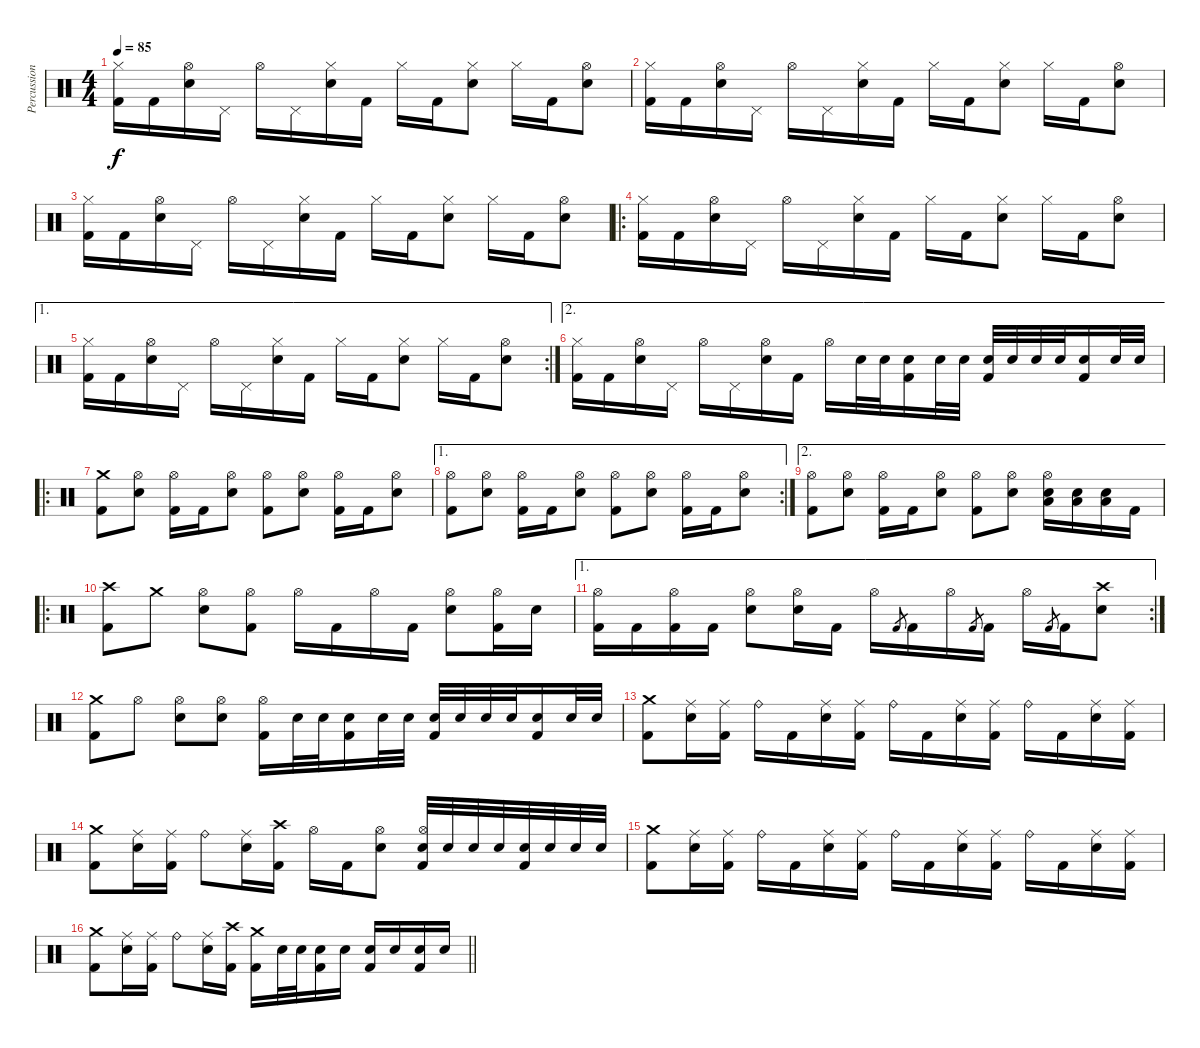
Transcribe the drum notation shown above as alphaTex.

\track ("Percussion" "Percussion") {instrument percussion}
\staff {score}
\articulation defaults
\ts (4 4)
\tempo 85
\clef neutral
\ks c
("Hi-Hat (closed)" "Kick (hit) 2").16{dy f} "Kick (hit) 2".16 ("Hi-Hat (open)" "Electric Snare (hit)").16 "Pedal Hi-Hat (hit)".16 "Hi-Hat (open)".16 "Pedal Hi-Hat (hit)".16 ("Hi-Hat (closed)" "Electric Snare (hit)").16 "Kick (hit) 2".16 "Hi-Hat (closed)".16 "Kick (hit) 2".16 ("Hi-Hat (closed)" "Electric Snare (hit)").8 "Hi-Hat (closed)".16 "Kick (hit) 2".16 ("Hi-Hat (open)" "Electric Snare (hit)").8 |
("Hi-Hat (closed)" "Kick (hit) 2").16 "Kick (hit) 2".16 ("Hi-Hat (open)" "Electric Snare (hit)").16 "Pedal Hi-Hat (hit)".16 "Hi-Hat (open)".16 "Pedal Hi-Hat (hit)".16 ("Hi-Hat (closed)" "Electric Snare (hit)").16 "Kick (hit) 2".16 "Hi-Hat (closed)".16 "Kick (hit) 2".16 ("Hi-Hat (closed)" "Electric Snare (hit)").8 "Hi-Hat (closed)".16 "Kick (hit) 2".16 ("Hi-Hat (open)" "Electric Snare (hit)").8 |
("Hi-Hat (closed)" "Kick (hit) 2").16 "Kick (hit) 2".16 ("Hi-Hat (open)" "Electric Snare (hit)").16 "Pedal Hi-Hat (hit)".16 "Hi-Hat (open)".16 "Pedal Hi-Hat (hit)".16 ("Hi-Hat (closed)" "Electric Snare (hit)").16 "Kick (hit) 2".16 "Hi-Hat (closed)".16 "Kick (hit) 2".16 ("Hi-Hat (closed)" "Electric Snare (hit)").8 "Hi-Hat (closed)".16 "Kick (hit) 2".16 ("Hi-Hat (open)" "Electric Snare (hit)").8 |
\ro
("Hi-Hat (closed)" "Kick (hit) 2").16 "Kick (hit) 2".16 ("Hi-Hat (open)" "Electric Snare (hit)").16 "Pedal Hi-Hat (hit)".16 "Hi-Hat (open)".16 "Pedal Hi-Hat (hit)".16 ("Hi-Hat (closed)" "Electric Snare (hit)").16 "Kick (hit) 2".16 "Hi-Hat (closed)".16 "Kick (hit) 2".16 ("Hi-Hat (closed)" "Electric Snare (hit)").8 "Hi-Hat (closed)".16 "Kick (hit) 2".16 ("Hi-Hat (open)" "Electric Snare (hit)").8 |
\ae 1
\rc 2
("Hi-Hat (closed)" "Kick (hit) 2").16 "Kick (hit) 2".16 ("Hi-Hat (open)" "Electric Snare (hit)").16 "Pedal Hi-Hat (hit)".16 "Hi-Hat (open)".16 "Pedal Hi-Hat (hit)".16 ("Hi-Hat (closed)" "Electric Snare (hit)").16 "Kick (hit) 2".16 "Hi-Hat (closed)".16 "Kick (hit) 2".16 ("Hi-Hat (closed)" "Electric Snare (hit)").8 "Hi-Hat (closed)".16 "Kick (hit) 2".16 ("Hi-Hat (open)" "Electric Snare (hit)").8 |
\ae 2
("Hi-Hat (closed)" "Kick (hit) 2").16 "Kick (hit) 2".16 ("Hi-Hat (open)" "Electric Snare (hit)").16 "Pedal Hi-Hat (hit)".16 "Hi-Hat (open)".16 "Pedal Hi-Hat (hit)".16 ("Hi-Hat (open)" "Electric Snare (hit)").16 "Kick (hit) 2".16 "Hi-Hat (open)".16 "Electric Snare (hit)".32 "Electric Snare (hit)".32 ("Electric Snare (hit)" "Kick (hit) 2").16 "Electric Snare (hit)".32 "Electric Snare (hit)".32 ("Electric Snare (hit)" "Kick (hit) 2").32 "Electric Snare (hit)".32 "Electric Snare (hit)".32 "Electric Snare (hit)".32 ("Electric Snare (hit)" "Kick (hit) 2").16 "Electric Snare (hit)".32 "Electric Snare (hit)".32 |
\ro
("Crash medium (hit)" "Kick (hit) 2").8 ("Hi-Hat (open)" "Electric Snare (hit)").8 ("Hi-Hat (open)" "Kick (hit) 2").16 "Kick (hit) 2".16 ("Hi-Hat (open)" "Electric Snare (hit)").8 ("Hi-Hat (open)" "Kick (hit) 2").8 ("Hi-Hat (open)" "Electric Snare (hit)").8 ("Hi-Hat (open)" "Kick (hit) 2").16 "Kick (hit) 2".16 ("Hi-Hat (open)" "Electric Snare (hit)").8 |
\ae 1
\rc 2
("Hi-Hat (open)" "Kick (hit) 2").8 ("Hi-Hat (open)" "Electric Snare (hit)").8 ("Hi-Hat (open)" "Kick (hit) 2").16 "Kick (hit) 2".16 ("Hi-Hat (open)" "Electric Snare (hit)").8 ("Hi-Hat (open)" "Kick (hit) 2").8 ("Hi-Hat (open)" "Electric Snare (hit)").8 ("Hi-Hat (open)" "Kick (hit) 2").16 "Kick (hit) 2".16 ("Hi-Hat (open)" "Electric Snare (hit)").8 |
\ae 2
("Hi-Hat (open)" "Kick (hit) 2").8 ("Hi-Hat (open)" "Electric Snare (hit)").8 ("Hi-Hat (open)" "Kick (hit) 2").16 "Kick (hit) 2".16 ("Hi-Hat (open)" "Electric Snare (hit)").8 ("Hi-Hat (open)" "Kick (hit) 2").8 ("Hi-Hat (open)" "Electric Snare (hit)").8 ("Hi-Hat (open)" "Electric Snare (hit)" "Low Tom (hit)").16 ("Electric Snare (hit)" "Low Tom (hit)").16 ("Electric Snare (hit)" "Low Tom (hit)").16 "Kick (hit) 2".16 |
\ro
("Crash high (hit)" "Kick (hit) 2").8 "Crash medium (hit)".8 ("Hi-Hat (open)" "Electric Snare (hit)").8 ("Hi-Hat (open)" "Kick (hit) 2").8 "Hi-Hat (open)".16 "Kick (hit) 2".16 "Hi-Hat (open)".16 "Kick (hit) 2".16 ("Hi-Hat (open)" "Electric Snare (hit)").8 ("Hi-Hat (open)" "Kick (hit) 2").16 "Electric Snare (hit)".16 |
\ae 1
\rc 2
("Hi-Hat (open)" "Kick (hit) 2").16 "Kick (hit) 2".16 ("Hi-Hat (open)" "Kick (hit) 2").16 "Kick (hit) 2".16 ("Hi-Hat (open)" "Electric Snare (hit)").8 ("Hi-Hat (open)" "Electric Snare (hit)").16 "Kick (hit) 2".16 "Hi-Hat (open)".16 "Kick (hit) 2".8{gr} "Kick (hit) 2".16 "Hi-Hat (open)".16 "Kick (hit) 2".8{gr} "Kick (hit) 2".16 "Hi-Hat (open)".16 "Kick (hit) 2".8{gr} "Kick (hit) 2".16 ("Crash high (hit)" "Electric Snare (hit)").8 |
("Crash medium (hit)" "Kick (hit) 2").8 "Hi-Hat (open)".8 ("Hi-Hat (open)" "Electric Snare (hit)").8 ("Hi-Hat (open)" "Electric Snare (hit)").8 ("Hi-Hat (open)" "Kick (hit) 2").16 "Electric Snare (hit)".32 "Electric Snare (hit)".32 ("Electric Snare (hit)" "Kick (hit) 2").16 "Electric Snare (hit)".32 "Electric Snare (hit)".32 ("Electric Snare (hit)" "Kick (hit) 2").32 "Electric Snare (hit)".32 "Electric Snare (hit)".32 "Electric Snare (hit)".32 ("Electric Snare (hit)" "Kick (hit) 2").16 "Electric Snare (hit)".32 "Electric Snare (hit)".32 |
("Crash medium (hit)" "Kick (hit) 2").8 ("Ride (middle)" "Electric Snare (hit)").16 ("Ride (middle)" "Kick (hit) 2").16 "Ride (bell)".16 "Kick (hit) 2".16 ("Ride (middle)" "Electric Snare (hit)").16 ("Ride (middle)" "Kick (hit) 2").16 "Ride (bell)".16 "Kick (hit) 2".16 ("Ride (middle)" "Electric Snare (hit)").16 ("Ride (middle)" "Kick (hit) 2").16 "Ride (bell)".16 "Kick (hit) 2".16 ("Ride (middle)" "Electric Snare (hit)").16 ("Ride (middle)" "Kick (hit) 2").16 |
("Crash medium (hit)" "Kick (hit) 2").8 ("Ride (middle)" "Electric Snare (hit)").16 ("Ride (middle)" "Kick (hit) 2").16 "Ride (bell)".8 ("Ride (middle)" "Electric Snare (hit)").16 ("Crash high (hit)" "Kick (hit) 2").16 "Hi-Hat (open)".16 "Kick (hit) 2".16 ("Hi-Hat (open)" "Electric Snare (hit)").8 ("Hi-Hat (open)" "Electric Snare (hit)" "Kick (hit) 2").32 "Electric Snare (hit)".32 "Electric Snare (hit)".32 "Electric Snare (hit)".32 ("Electric Snare (hit)" "Kick (hit) 2").32 "Electric Snare (hit)".32 "Electric Snare (hit)".32 "Electric Snare (hit)".32 |
("Crash medium (hit)" "Kick (hit) 2").8 ("Ride (middle)" "Electric Snare (hit)").16 ("Ride (middle)" "Kick (hit) 2").16 "Ride (bell)".16 "Kick (hit) 2".16 ("Ride (middle)" "Electric Snare (hit)").16 ("Ride (middle)" "Kick (hit) 2").16 "Ride (bell)".16 "Kick (hit) 2".16 ("Ride (middle)" "Electric Snare (hit)").16 ("Ride (middle)" "Kick (hit) 2").16 "Ride (bell)".16 "Kick (hit) 2".16 ("Ride (middle)" "Electric Snare (hit)").16 ("Ride (middle)" "Kick (hit) 2").16 |
\barLineRight lightlight
("Crash medium (hit)" "Kick (hit) 2").8 ("Ride (middle)" "Electric Snare (hit)").16 ("Ride (middle)" "Kick (hit) 2").16 "Ride (bell)".8 ("Ride (middle)" "Electric Snare (hit)").16 ("Crash high (hit)" "Kick (hit) 2").16 ("Crash medium (hit)" "Kick (hit) 2").16 "Electric Snare (hit)".32 "Electric Snare (hit)".32 ("Electric Snare (hit)" "Kick (hit) 2").16 "Electric Snare (hit)".16 ("Electric Snare (hit)" "Kick (hit) 2").16 "Electric Snare (hit)".16 ("Electric Snare (hit)" "Kick (hit) 2").16 "Electric Snare (hit)".16
